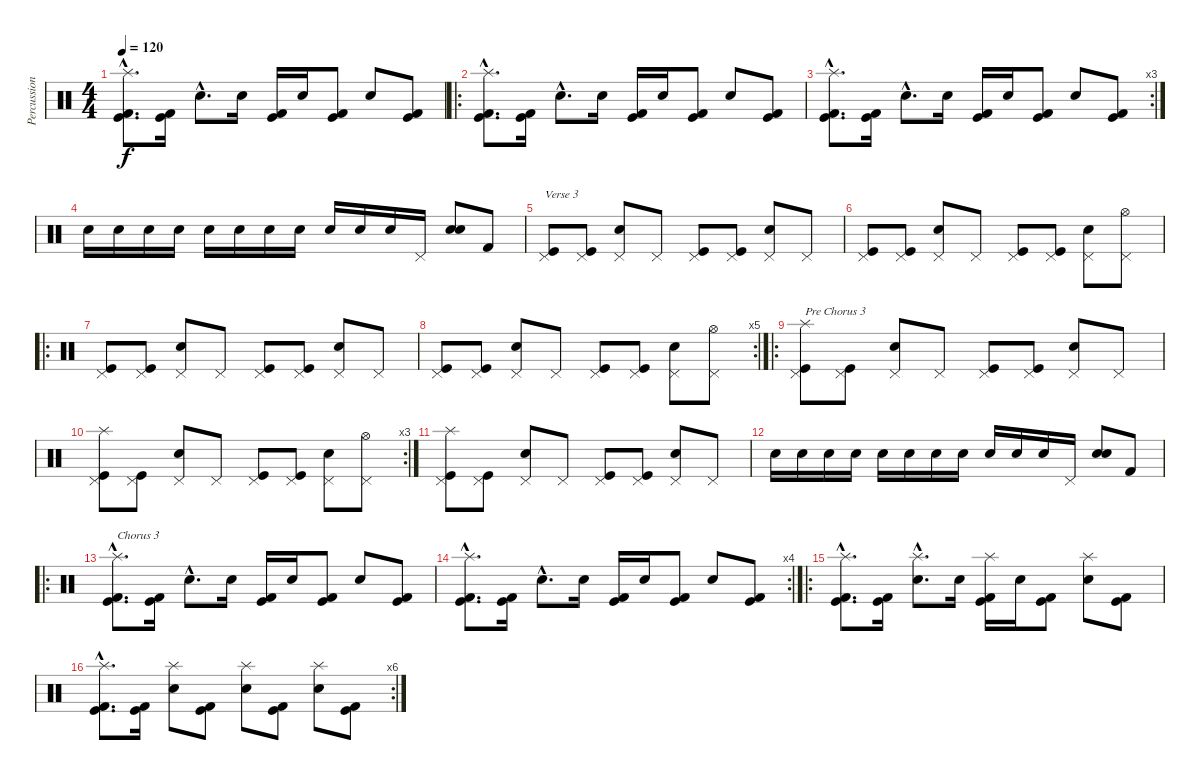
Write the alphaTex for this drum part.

\track ("Percussion" "Percussion") {instrument percussion}
\staff {score}
\articulation defaults
\ts (4 4)
\tempo 120
\clef neutral
\ks c
("Splash (hit)"{hac} "Kick (hit)"{hac} "Kick (hit) 2"{hac}).8{d dy f} ("Kick (hit)" "Kick (hit) 2").16 "Snare (hit) 2"{hac}.8{d} "Snare (hit) 2".16 ("Kick (hit)" "Kick (hit) 2").16 "Snare (hit) 2".16 ("Kick (hit)" "Kick (hit) 2").8 "Snare (hit) 2".8 ("Kick (hit)" "Kick (hit) 2").8 |
\ro
("Splash (hit)"{hac} "Kick (hit)"{hac} "Kick (hit) 2"{hac}).8{d} ("Kick (hit)" "Kick (hit) 2").16 "Snare (hit) 2"{hac}.8{d} "Snare (hit) 2".16 ("Kick (hit)" "Kick (hit) 2").16 "Snare (hit) 2".16 ("Kick (hit)" "Kick (hit) 2").8 "Snare (hit) 2".8 ("Kick (hit)" "Kick (hit) 2").8 |
\rc 3
("Splash (hit)"{hac} "Kick (hit)"{hac} "Kick (hit) 2"{hac}).8{d} ("Kick (hit)" "Kick (hit) 2").16 "Snare (hit) 2"{hac}.8{d} "Snare (hit) 2".16 ("Kick (hit)" "Kick (hit) 2").16 "Snare (hit) 2".16 ("Kick (hit)" "Kick (hit) 2").8 "Snare (hit) 2".8 ("Kick (hit)" "Kick (hit) 2").8 |
"Snare (hit) 2".16 "Snare (hit) 2".16 "Snare (hit) 2".16 "Snare (hit) 2".16 "Snare (hit) 2".16 "Snare (hit) 2".16 "Snare (hit) 2".16 "Snare (hit) 2".16 "Snare (hit) 2".16 "Snare (hit) 2".16 "Snare (hit) 2".16 "Pedal Hi-Hat (hit)".16 ("Electric Snare (hit)" "Snare (hit) 2").8 "Kick (hit) 2".8 |
("Pedal Hi-Hat (hit)" "Kick (hit)").8{txt "Verse 3"} ("Pedal Hi-Hat (hit)" "Kick (hit)").8 ("Pedal Hi-Hat (hit)" "Snare (hit) 2").8 "Pedal Hi-Hat (hit)".8 ("Pedal Hi-Hat (hit)" "Kick (hit)").8 ("Pedal Hi-Hat (hit)" "Kick (hit)").8 ("Pedal Hi-Hat (hit)" "Snare (hit) 2").8 "Pedal Hi-Hat (hit)".8 |
("Pedal Hi-Hat (hit)" "Kick (hit)").8 ("Pedal Hi-Hat (hit)" "Kick (hit)").8 ("Pedal Hi-Hat (hit)" "Snare (hit) 2").8 "Pedal Hi-Hat (hit)".8 ("Pedal Hi-Hat (hit)" "Kick (hit)").8 ("Pedal Hi-Hat (hit)" "Kick (hit)").8 ("Pedal Hi-Hat (hit)" "Snare (hit) 2").8 ("Pedal Hi-Hat (hit)" "Hi-Hat (open)").8 |
\ro
("Pedal Hi-Hat (hit)" "Kick (hit)").8 ("Pedal Hi-Hat (hit)" "Kick (hit)").8 ("Pedal Hi-Hat (hit)" "Snare (hit) 2").8 "Pedal Hi-Hat (hit)".8 ("Pedal Hi-Hat (hit)" "Kick (hit)").8 ("Pedal Hi-Hat (hit)" "Kick (hit)").8 ("Pedal Hi-Hat (hit)" "Snare (hit) 2").8 "Pedal Hi-Hat (hit)".8 |
\rc 5
("Pedal Hi-Hat (hit)" "Kick (hit)").8 ("Pedal Hi-Hat (hit)" "Kick (hit)").8 ("Pedal Hi-Hat (hit)" "Snare (hit) 2").8 "Pedal Hi-Hat (hit)".8 ("Pedal Hi-Hat (hit)" "Kick (hit)").8 ("Pedal Hi-Hat (hit)" "Kick (hit)").8 ("Pedal Hi-Hat (hit)" "Snare (hit) 2").8 ("Pedal Hi-Hat (hit)" "Hi-Hat (open)").8 |
\ro
("Splash (hit)" "Pedal Hi-Hat (hit)" "Kick (hit)").8{txt "Pre Chorus 3"} ("Pedal Hi-Hat (hit)" "Kick (hit)").8 ("Pedal Hi-Hat (hit)" "Snare (hit) 2").8 "Pedal Hi-Hat (hit)".8 ("Pedal Hi-Hat (hit)" "Kick (hit)").8 ("Pedal Hi-Hat (hit)" "Kick (hit)").8 ("Pedal Hi-Hat (hit)" "Snare (hit) 2").8 "Pedal Hi-Hat (hit)".8 |
\rc 3
("Splash (hit)" "Pedal Hi-Hat (hit)" "Kick (hit)").8 ("Pedal Hi-Hat (hit)" "Kick (hit)").8 ("Pedal Hi-Hat (hit)" "Snare (hit) 2").8 "Pedal Hi-Hat (hit)".8 ("Pedal Hi-Hat (hit)" "Kick (hit)").8 ("Pedal Hi-Hat (hit)" "Kick (hit)").8 ("Pedal Hi-Hat (hit)" "Snare (hit) 2").8 ("Pedal Hi-Hat (hit)" "Hi-Hat (open)").8 |
("Splash (hit)" "Pedal Hi-Hat (hit)" "Kick (hit)").8 ("Pedal Hi-Hat (hit)" "Kick (hit)").8 ("Pedal Hi-Hat (hit)" "Snare (hit) 2").8 "Pedal Hi-Hat (hit)".8 ("Pedal Hi-Hat (hit)" "Kick (hit)").8 ("Pedal Hi-Hat (hit)" "Kick (hit)").8 ("Pedal Hi-Hat (hit)" "Snare (hit) 2").8 "Pedal Hi-Hat (hit)".8 |
"Snare (hit) 2".16 "Snare (hit) 2".16 "Snare (hit) 2".16 "Snare (hit) 2".16 "Snare (hit) 2".16 "Snare (hit) 2".16 "Snare (hit) 2".16 "Snare (hit) 2".16 "Snare (hit) 2".16 "Snare (hit) 2".16 "Snare (hit) 2".16 "Pedal Hi-Hat (hit)".16 ("Electric Snare (hit)" "Snare (hit) 2").8 "Kick (hit) 2".8 |
\ro
("Splash (hit)"{hac} "Kick (hit)"{hac} "Kick (hit) 2"{hac}).8{d txt "Chorus 3"} ("Kick (hit)" "Kick (hit) 2").16 "Snare (hit) 2"{hac}.8{d} "Snare (hit) 2".16 ("Kick (hit)" "Kick (hit) 2").16 "Snare (hit) 2".16 ("Kick (hit)" "Kick (hit) 2").8 "Snare (hit) 2".8 ("Kick (hit)" "Kick (hit) 2").8 |
\rc 4
("Splash (hit)"{hac} "Kick (hit)"{hac} "Kick (hit) 2"{hac}).8{d} ("Kick (hit)" "Kick (hit) 2").16 "Snare (hit) 2"{hac}.8{d} "Snare (hit) 2".16 ("Kick (hit)" "Kick (hit) 2").16 "Snare (hit) 2".16 ("Kick (hit)" "Kick (hit) 2").8 "Snare (hit) 2".8 ("Kick (hit)" "Kick (hit) 2").8 |
\ro
("Splash (hit)"{hac} "Kick (hit)"{hac} "Kick (hit) 2"{hac}).8{d} ("Kick (hit)" "Kick (hit) 2").16 ("Splash (hit)"{hac} "Snare (hit) 2"{hac}).8{d} "Snare (hit) 2".16 ("Splash (hit)" "Kick (hit)" "Kick (hit) 2").16 "Snare (hit) 2".16 ("Kick (hit)" "Kick (hit) 2").8 ("Splash (hit)" "Snare (hit) 2").8 ("Kick (hit)" "Kick (hit) 2").8 |
\rc 6
("Splash (hit)"{hac} "Kick (hit)"{hac} "Kick (hit) 2"{hac}).8{d} ("Kick (hit)" "Kick (hit) 2").16 ("Splash (hit)" "Snare (hit) 2").8 ("Kick (hit)" "Kick (hit) 2").8 ("Splash (hit)" "Snare (hit) 2").8 ("Kick (hit)" "Kick (hit) 2").8 ("Splash (hit)" "Snare (hit) 2").8 ("Kick (hit)" "Kick (hit) 2").8
